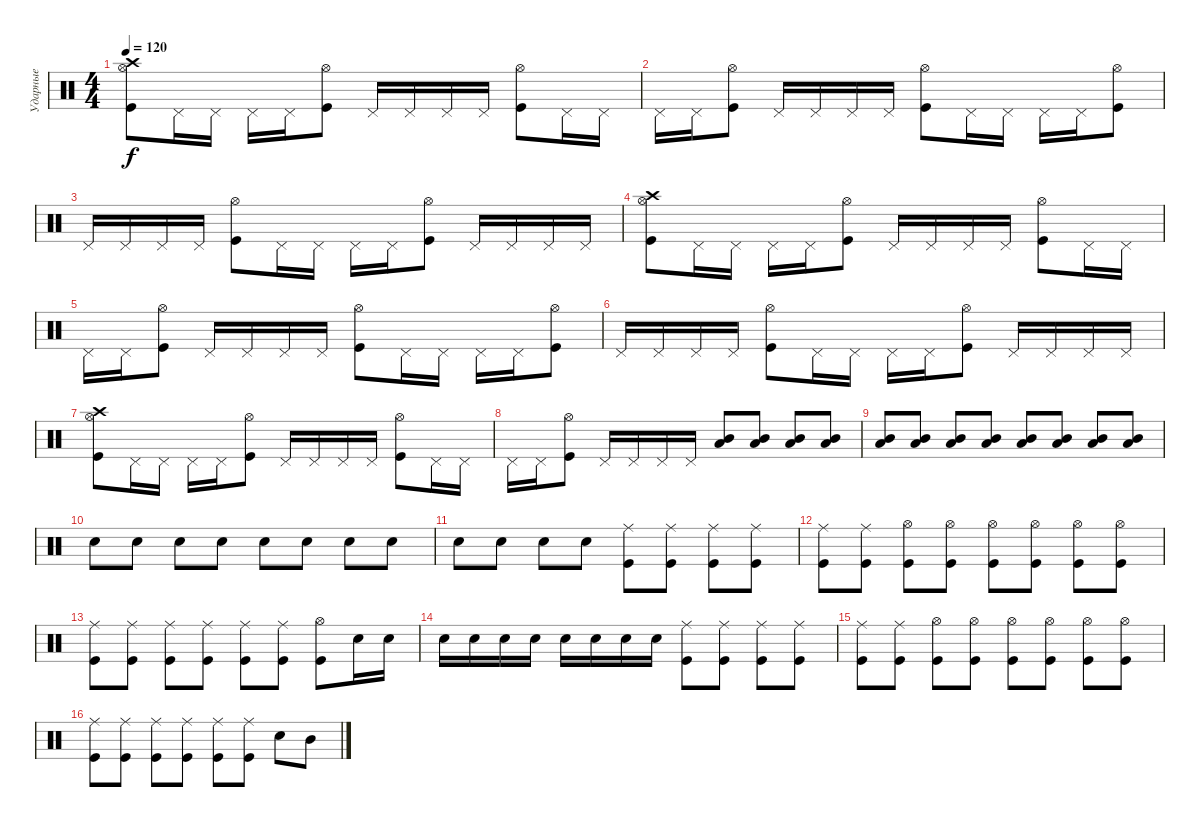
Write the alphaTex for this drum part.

\track ("Ударные" "Ударные") {instrument percussion}
\staff {score}
\articulation defaults
\ts (4 4)
\tempo 120
\clef neutral
\ks c
("Kick (hit)" "Hi-Hat (open)" "Crash high (hit)").8{dy f} "Pedal Hi-Hat (hit)".16 "Pedal Hi-Hat (hit)".16 "Pedal Hi-Hat (hit)".16 "Pedal Hi-Hat (hit)".16 ("Kick (hit)" "Hi-Hat (open)").8 "Pedal Hi-Hat (hit)".16 "Pedal Hi-Hat (hit)".16 "Pedal Hi-Hat (hit)".16 "Pedal Hi-Hat (hit)".16 ("Kick (hit)" "Hi-Hat (open)").8 "Pedal Hi-Hat (hit)".16 "Pedal Hi-Hat (hit)".16 |
"Pedal Hi-Hat (hit)".16 "Pedal Hi-Hat (hit)".16 ("Kick (hit)" "Hi-Hat (open)").8 "Pedal Hi-Hat (hit)".16 "Pedal Hi-Hat (hit)".16 "Pedal Hi-Hat (hit)".16 "Pedal Hi-Hat (hit)".16 ("Kick (hit)" "Hi-Hat (open)").8 "Pedal Hi-Hat (hit)".16 "Pedal Hi-Hat (hit)".16 "Pedal Hi-Hat (hit)".16 "Pedal Hi-Hat (hit)".16 ("Kick (hit)" "Hi-Hat (open)").8 |
"Pedal Hi-Hat (hit)".16 "Pedal Hi-Hat (hit)".16 "Pedal Hi-Hat (hit)".16 "Pedal Hi-Hat (hit)".16 ("Kick (hit)" "Hi-Hat (open)").8 "Pedal Hi-Hat (hit)".16 "Pedal Hi-Hat (hit)".16 "Pedal Hi-Hat (hit)".16 "Pedal Hi-Hat (hit)".16 ("Kick (hit)" "Hi-Hat (open)").8 "Pedal Hi-Hat (hit)".16 "Pedal Hi-Hat (hit)".16 "Pedal Hi-Hat (hit)".16 "Pedal Hi-Hat (hit)".16 |
("Kick (hit)" "Hi-Hat (open)" "Crash high (hit)").8 "Pedal Hi-Hat (hit)".16 "Pedal Hi-Hat (hit)".16 "Pedal Hi-Hat (hit)".16 "Pedal Hi-Hat (hit)".16 ("Kick (hit)" "Hi-Hat (open)").8 "Pedal Hi-Hat (hit)".16 "Pedal Hi-Hat (hit)".16 "Pedal Hi-Hat (hit)".16 "Pedal Hi-Hat (hit)".16 ("Kick (hit)" "Hi-Hat (open)").8 "Pedal Hi-Hat (hit)".16 "Pedal Hi-Hat (hit)".16 |
"Pedal Hi-Hat (hit)".16 "Pedal Hi-Hat (hit)".16 ("Kick (hit)" "Hi-Hat (open)").8 "Pedal Hi-Hat (hit)".16 "Pedal Hi-Hat (hit)".16 "Pedal Hi-Hat (hit)".16 "Pedal Hi-Hat (hit)".16 ("Kick (hit)" "Hi-Hat (open)").8 "Pedal Hi-Hat (hit)".16 "Pedal Hi-Hat (hit)".16 "Pedal Hi-Hat (hit)".16 "Pedal Hi-Hat (hit)".16 ("Kick (hit)" "Hi-Hat (open)").8 |
"Pedal Hi-Hat (hit)".16 "Pedal Hi-Hat (hit)".16 "Pedal Hi-Hat (hit)".16 "Pedal Hi-Hat (hit)".16 ("Kick (hit)" "Hi-Hat (open)").8 "Pedal Hi-Hat (hit)".16 "Pedal Hi-Hat (hit)".16 "Pedal Hi-Hat (hit)".16 "Pedal Hi-Hat (hit)".16 ("Kick (hit)" "Hi-Hat (open)").8 "Pedal Hi-Hat (hit)".16 "Pedal Hi-Hat (hit)".16 "Pedal Hi-Hat (hit)".16 "Pedal Hi-Hat (hit)".16 |
("Kick (hit)" "Hi-Hat (open)" "Crash high (hit)").8 "Pedal Hi-Hat (hit)".16 "Pedal Hi-Hat (hit)".16 "Pedal Hi-Hat (hit)".16 "Pedal Hi-Hat (hit)".16 ("Kick (hit)" "Hi-Hat (open)").8 "Pedal Hi-Hat (hit)".16 "Pedal Hi-Hat (hit)".16 "Pedal Hi-Hat (hit)".16 "Pedal Hi-Hat (hit)".16 ("Kick (hit)" "Hi-Hat (open)").8 "Pedal Hi-Hat (hit)".16 "Pedal Hi-Hat (hit)".16 |
"Pedal Hi-Hat (hit)".16 "Pedal Hi-Hat (hit)".16 ("Kick (hit)" "Hi-Hat (open)").8 "Pedal Hi-Hat (hit)".16 "Pedal Hi-Hat (hit)".16 "Pedal Hi-Hat (hit)".16 "Pedal Hi-Hat (hit)".16 ("Low Tom (hit)" "Mid Tom (hit)").8 ("Low Tom (hit)" "Mid Tom (hit)").8 ("Low Tom (hit)" "Mid Tom (hit)").8 ("Low Tom (hit)" "Mid Tom (hit)").8 |
("Low Tom (hit)" "Mid Tom (hit)").8 ("Low Tom (hit)" "Mid Tom (hit)").8 ("Low Tom (hit)" "Mid Tom (hit)").8 ("Low Tom (hit)" "Mid Tom (hit)").8 ("Low Tom (hit)" "Mid Tom (hit)").8 ("Low Tom (hit)" "Mid Tom (hit)").8 ("Low Tom (hit)" "Mid Tom (hit)").8 ("Low Tom (hit)" "Mid Tom (hit)").8 |
"Electric Snare (hit)".8 "Electric Snare (hit)".8 "Electric Snare (hit)".8 "Electric Snare (hit)".8 "Electric Snare (hit)".8 "Electric Snare (hit)".8 "Electric Snare (hit)".8 "Electric Snare (hit)".8 |
"Electric Snare (hit)".8 "Electric Snare (hit)".8 "Electric Snare (hit)".8 "Electric Snare (hit)".8 ("Kick (hit)" "Ride (middle)").8 ("Kick (hit)" "Ride (middle)").8 ("Kick (hit)" "Ride (middle)").8 ("Kick (hit)" "Ride (middle)").8 |
("Kick (hit)" "Ride (middle)").8 ("Kick (hit)" "Ride (middle)").8 ("Kick (hit)" "Hi-Hat (open)").8 ("Kick (hit)" "Hi-Hat (open)").8 ("Kick (hit)" "Hi-Hat (open)").8 ("Kick (hit)" "Hi-Hat (open)").8 ("Kick (hit)" "Hi-Hat (open)").8 ("Kick (hit)" "Hi-Hat (open)").8 |
("Kick (hit)" "Ride (middle)").8 ("Kick (hit)" "Ride (middle)").8 ("Kick (hit)" "Ride (middle)").8 ("Kick (hit)" "Ride (middle)").8 ("Kick (hit)" "Ride (middle)").8 ("Kick (hit)" "Ride (middle)").8 ("Kick (hit)" "Hi-Hat (open)").8 "Electric Snare (hit)".16 "Electric Snare (hit)".16 |
"Electric Snare (hit)".16 "Electric Snare (hit)".16 "Electric Snare (hit)".16 "Electric Snare (hit)".16 "Electric Snare (hit)".16 "Electric Snare (hit)".16 "Electric Snare (hit)".16 "Electric Snare (hit)".16 ("Kick (hit)" "Ride (middle)").8 ("Kick (hit)" "Ride (middle)").8 ("Kick (hit)" "Ride (middle)").8 ("Kick (hit)" "Ride (middle)").8 |
("Kick (hit)" "Ride (middle)").8 ("Ride (middle)" "Kick (hit)").8 ("Kick (hit)" "Hi-Hat (open)").8 ("Kick (hit)" "Hi-Hat (open)").8 ("Kick (hit)" "Hi-Hat (open)").8 ("Kick (hit)" "Hi-Hat (open)").8 ("Kick (hit)" "Hi-Hat (open)").8 ("Kick (hit)" "Hi-Hat (open)").8 |
("Kick (hit)" "Ride (middle)").8 ("Kick (hit)" "Ride (middle)").8 ("Kick (hit)" "Ride (middle)").8 ("Kick (hit)" "Ride (middle)").8 ("Kick (hit)" "Ride (middle)").8 ("Kick (hit)" "Ride (middle)").8 "Electric Snare (hit)".8 "Mid Tom (hit)".8
